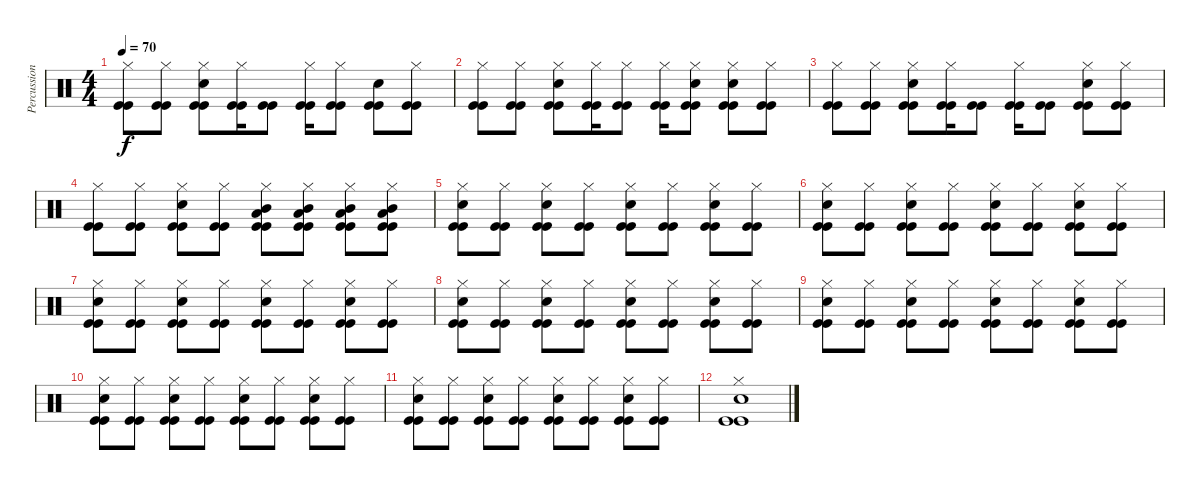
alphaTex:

\track ("Percussion" "Percussion") {instrument percussion}
\staff {score}
\articulation defaults
\ts (4 4)
\tempo 70
\clef neutral
\ks c
("Hi-Hat (closed)" "Kick (hit)" "Kick (hit)").8{dy f} ("Hi-Hat (closed)" "Kick (hit)" "Kick (hit)").8 ("Hi-Hat (closed)" "Kick (hit)" "Kick (hit)" "Electric Snare (hit)").8 ("Hi-Hat (closed)" "Kick (hit)" "Kick (hit)").16 ("Kick (hit)" "Kick (hit)").8 ("Hi-Hat (closed)" "Kick (hit)" "Kick (hit)").16 ("Hi-Hat (closed)" "Kick (hit)" "Kick (hit)").8 ("Kick (hit)" "Kick (hit)" "Electric Snare (hit)").8 ("Hi-Hat (closed)" "Kick (hit)" "Kick (hit)").8 |
("Hi-Hat (closed)" "Kick (hit)" "Kick (hit)").8 ("Hi-Hat (closed)" "Kick (hit)" "Kick (hit)").8 ("Hi-Hat (closed)" "Kick (hit)" "Kick (hit)" "Electric Snare (hit)").8 ("Hi-Hat (closed)" "Kick (hit)" "Kick (hit)").16 ("Hi-Hat (closed)" "Kick (hit)" "Kick (hit)").8 ("Hi-Hat (closed)" "Kick (hit)" "Kick (hit)").16 ("Hi-Hat (closed)" "Kick (hit)" "Kick (hit)" "Electric Snare (hit)").8 ("Hi-Hat (closed)" "Kick (hit)" "Kick (hit)" "Electric Snare (hit)").8 ("Hi-Hat (closed)" "Kick (hit)" "Kick (hit)").8 |
("Hi-Hat (closed)" "Kick (hit)" "Kick (hit)").8 ("Hi-Hat (closed)" "Kick (hit)" "Kick (hit)").8 ("Hi-Hat (closed)" "Kick (hit)" "Kick (hit)" "Electric Snare (hit)").8 ("Hi-Hat (closed)" "Kick (hit)" "Kick (hit)").16 ("Kick (hit)" "Kick (hit)").8 ("Hi-Hat (closed)" "Kick (hit)" "Kick (hit)").16 ("Kick (hit)" "Kick (hit)").8 ("Hi-Hat (closed)" "Kick (hit)" "Kick (hit)" "Electric Snare (hit)").8 ("Hi-Hat (closed)" "Kick (hit)" "Kick (hit)").8 |
("Hi-Hat (closed)" "Kick (hit)" "Kick (hit)").8 ("Hi-Hat (closed)" "Kick (hit)" "Kick (hit)").8 ("Hi-Hat (closed)" "Kick (hit)" "Kick (hit)" "Electric Snare (hit)").8 ("Hi-Hat (closed)" "Kick (hit)" "Kick (hit)").8 ("Hi-Hat (closed)" "Kick (hit)" "Kick (hit)" "Low Tom (hit)" "Mid Tom (hit)").8 ("Hi-Hat (closed)" "Kick (hit)" "Kick (hit)" "Low Tom (hit)" "Mid Tom (hit)").8 ("Hi-Hat (closed)" "Kick (hit)" "Kick (hit)" "Low Tom (hit)" "Mid Tom (hit)").8 ("Hi-Hat (closed)" "Kick (hit)" "Kick (hit)" "Low Tom (hit)" "Mid Tom (hit)").8 |
("Hi-Hat (closed)" "Kick (hit)" "Kick (hit)" "Electric Snare (hit)").8 ("Hi-Hat (closed)" "Kick (hit)" "Kick (hit)").8 ("Hi-Hat (closed)" "Kick (hit)" "Kick (hit)" "Electric Snare (hit)").8 ("Hi-Hat (closed)" "Kick (hit)" "Kick (hit)").8 ("Hi-Hat (closed)" "Kick (hit)" "Kick (hit)" "Electric Snare (hit)").8 ("Hi-Hat (closed)" "Kick (hit)" "Kick (hit)").8 ("Hi-Hat (closed)" "Kick (hit)" "Kick (hit)" "Electric Snare (hit)").8 ("Hi-Hat (closed)" "Kick (hit)" "Kick (hit)").8 |
("Hi-Hat (closed)" "Kick (hit)" "Kick (hit)" "Electric Snare (hit)").8 ("Hi-Hat (closed)" "Kick (hit)" "Kick (hit)").8 ("Hi-Hat (closed)" "Kick (hit)" "Kick (hit)" "Electric Snare (hit)").8 ("Hi-Hat (closed)" "Kick (hit)" "Kick (hit)").8 ("Hi-Hat (closed)" "Kick (hit)" "Kick (hit)" "Electric Snare (hit)").8 ("Hi-Hat (closed)" "Kick (hit)" "Kick (hit)").8 ("Hi-Hat (closed)" "Kick (hit)" "Kick (hit)" "Electric Snare (hit)").8 ("Hi-Hat (closed)" "Kick (hit)" "Kick (hit)").8 |
("Hi-Hat (closed)" "Kick (hit)" "Kick (hit)" "Electric Snare (hit)").8 ("Hi-Hat (closed)" "Kick (hit)" "Kick (hit)").8 ("Hi-Hat (closed)" "Kick (hit)" "Kick (hit)" "Electric Snare (hit)").8 ("Hi-Hat (closed)" "Kick (hit)" "Kick (hit)").8 ("Hi-Hat (closed)" "Kick (hit)" "Kick (hit)" "Electric Snare (hit)").8 ("Hi-Hat (closed)" "Kick (hit)" "Kick (hit)").8 ("Hi-Hat (closed)" "Kick (hit)" "Kick (hit)" "Electric Snare (hit)").8 ("Hi-Hat (closed)" "Kick (hit)" "Kick (hit)").8 |
("Hi-Hat (closed)" "Kick (hit)" "Kick (hit)" "Electric Snare (hit)").8 ("Hi-Hat (closed)" "Kick (hit)" "Kick (hit)").8 ("Hi-Hat (closed)" "Kick (hit)" "Kick (hit)" "Electric Snare (hit)").8 ("Hi-Hat (closed)" "Kick (hit)" "Kick (hit)").8 ("Hi-Hat (closed)" "Kick (hit)" "Kick (hit)" "Electric Snare (hit)").8 ("Hi-Hat (closed)" "Kick (hit)" "Kick (hit)").8 ("Hi-Hat (closed)" "Kick (hit)" "Kick (hit)" "Electric Snare (hit)").8 ("Hi-Hat (closed)" "Kick (hit)" "Kick (hit)").8 |
("Hi-Hat (closed)" "Kick (hit)" "Kick (hit)" "Electric Snare (hit)").8 ("Hi-Hat (closed)" "Kick (hit)" "Kick (hit)").8 ("Hi-Hat (closed)" "Kick (hit)" "Kick (hit)" "Electric Snare (hit)").8 ("Hi-Hat (closed)" "Kick (hit)" "Kick (hit)").8 ("Hi-Hat (closed)" "Kick (hit)" "Kick (hit)" "Electric Snare (hit)").8 ("Hi-Hat (closed)" "Kick (hit)" "Kick (hit)").8 ("Hi-Hat (closed)" "Kick (hit)" "Kick (hit)" "Electric Snare (hit)").8 ("Hi-Hat (closed)" "Kick (hit)" "Kick (hit)").8 |
("Hi-Hat (closed)" "Kick (hit)" "Kick (hit)" "Electric Snare (hit)").8 ("Hi-Hat (closed)" "Kick (hit)" "Kick (hit)").8 ("Hi-Hat (closed)" "Kick (hit)" "Kick (hit)" "Electric Snare (hit)").8 ("Hi-Hat (closed)" "Kick (hit)" "Kick (hit)").8 ("Hi-Hat (closed)" "Kick (hit)" "Kick (hit)" "Electric Snare (hit)").8 ("Hi-Hat (closed)" "Kick (hit)" "Kick (hit)").8 ("Hi-Hat (closed)" "Kick (hit)" "Kick (hit)" "Electric Snare (hit)").8 ("Hi-Hat (closed)" "Kick (hit)" "Kick (hit)").8 |
("Hi-Hat (closed)" "Kick (hit)" "Kick (hit)" "Electric Snare (hit)").8 ("Hi-Hat (closed)" "Kick (hit)" "Kick (hit)").8 ("Hi-Hat (closed)" "Kick (hit)" "Kick (hit)" "Electric Snare (hit)").8 ("Hi-Hat (closed)" "Kick (hit)" "Kick (hit)").8 ("Hi-Hat (closed)" "Kick (hit)" "Kick (hit)" "Electric Snare (hit)").8 ("Hi-Hat (closed)" "Kick (hit)" "Kick (hit)").8 ("Hi-Hat (closed)" "Kick (hit)" "Kick (hit)" "Electric Snare (hit)").8 ("Hi-Hat (closed)" "Kick (hit)" "Kick (hit)").8 |
("Hi-Hat (closed)" "Kick (hit)" "Kick (hit)" "Electric Snare (hit)").1
